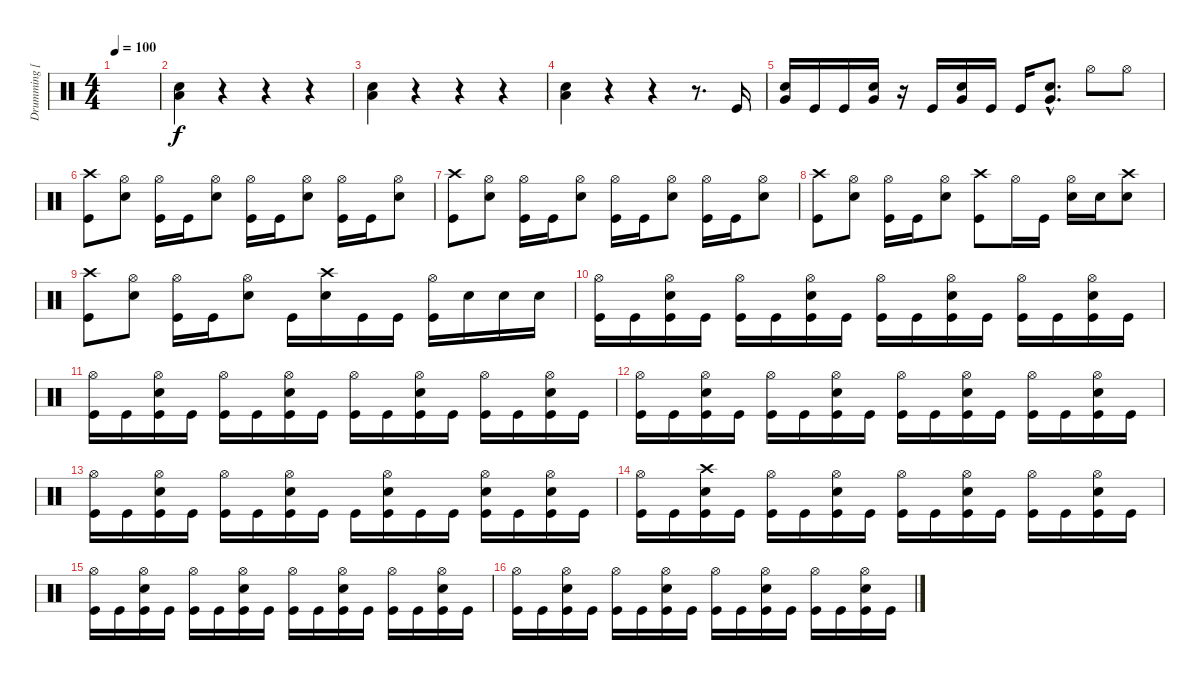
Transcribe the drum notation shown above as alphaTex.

\track ("Drumming [Jukka]" "Drumming [") {instrument percussion}
\staff {score}
\articulation defaults
\ts (4 4)
\tempo 100
\clef neutral
\ks c
|
("Low Floor Tom (hit)" "Electric Snare (hit)").4 r.4 r.4 r.4 |
("Low Floor Tom (hit)" "Electric Snare (hit)").4 r.4 r.4 r.4 |
("Low Floor Tom (hit)" "Electric Snare (hit)").4 r.4 r.4 r.8{d} "Kick (hit)".16 |
("Very Low Tom (hit)" "Electric Snare (hit)").16 "Kick (hit)".16 "Kick (hit)".16 ("Very Low Tom (hit)" "Electric Snare (hit)").16 r.16 "Kick (hit)".16 ("Very Low Tom (hit)" "Electric Snare (hit)").16 "Kick (hit)".16 "Kick (hit)".16 ("Very Low Tom (hit)"{hac} "Electric Snare (hit)"{hac}).8{d} "Hi-Hat (open)".8 "Hi-Hat (open)".8 |
("Crash high (hit)" "Kick (hit)").8 ("Hi-Hat (open)" "Electric Snare (hit)").8 ("Hi-Hat (open)" "Kick (hit)").16 "Kick (hit)".16 ("Hi-Hat (open)" "Electric Snare (hit)").8 ("Hi-Hat (open)" "Kick (hit)").16 "Kick (hit)".16 ("Hi-Hat (open)" "Electric Snare (hit)").8 ("Hi-Hat (open)" "Kick (hit)").16 "Kick (hit)".16 ("Hi-Hat (open)" "Electric Snare (hit)").8 |
("Crash high (hit)" "Kick (hit)").8 ("Hi-Hat (open)" "Electric Snare (hit)").8 ("Hi-Hat (open)" "Kick (hit)").16 "Kick (hit)".16 ("Hi-Hat (open)" "Electric Snare (hit)").8 ("Hi-Hat (open)" "Kick (hit)").16 "Kick (hit)".16 ("Hi-Hat (open)" "Electric Snare (hit)").8 ("Hi-Hat (open)" "Kick (hit)").16 "Kick (hit)".16 ("Hi-Hat (open)" "Electric Snare (hit)").8 |
("Crash high (hit)" "Kick (hit)").8 ("Hi-Hat (open)" "Electric Snare (hit)").8 ("Hi-Hat (open)" "Kick (hit)").16 "Kick (hit)".16 ("Hi-Hat (open)" "Electric Snare (hit)").8 ("Crash high (hit)" "Kick (hit)").8 "Hi-Hat (open)".16 "Kick (hit)".16 ("Hi-Hat (open)" "Electric Snare (hit)").16 "Electric Snare (hit)".16 ("Crash high (hit)" "Electric Snare (hit)").8 |
("Crash high (hit)" "Kick (hit)").8 ("Hi-Hat (open)" "Electric Snare (hit)").8 ("Hi-Hat (open)" "Kick (hit)").16 "Kick (hit)".16 ("Hi-Hat (open)" "Electric Snare (hit)").8 "Kick (hit)".16 ("Crash high (hit)" "Electric Snare (hit)").16 "Kick (hit)".16 "Kick (hit)".16 ("Hi-Hat (open)" "Kick (hit)").16 "Electric Snare (hit)".16 "Electric Snare (hit)".16 "Electric Snare (hit)".16 |
("Hi-Hat (open)" "Kick (hit)").16 "Kick (hit)".16 ("Hi-Hat (open)" "Electric Snare (hit)" "Kick (hit)").16 "Kick (hit)".16 ("Hi-Hat (open)" "Kick (hit)").16 "Kick (hit)".16 ("Hi-Hat (open)" "Electric Snare (hit)" "Kick (hit)").16 "Kick (hit)".16 ("Hi-Hat (open)" "Kick (hit)").16 "Kick (hit)".16 ("Hi-Hat (open)" "Electric Snare (hit)" "Kick (hit)").16 "Kick (hit)".16 ("Hi-Hat (open)" "Kick (hit)").16 "Kick (hit)".16 ("Hi-Hat (open)" "Electric Snare (hit)" "Kick (hit)").16 "Kick (hit)".16 |
("Hi-Hat (open)" "Kick (hit)").16 "Kick (hit)".16 ("Hi-Hat (open)" "Electric Snare (hit)" "Kick (hit)").16 "Kick (hit)".16 ("Hi-Hat (open)" "Kick (hit)").16 "Kick (hit)".16 ("Hi-Hat (open)" "Electric Snare (hit)" "Kick (hit)").16 "Kick (hit)".16 ("Hi-Hat (open)" "Kick (hit)").16 "Kick (hit)".16 ("Hi-Hat (open)" "Electric Snare (hit)" "Kick (hit)").16 "Kick (hit)".16 ("Hi-Hat (open)" "Kick (hit)").16 "Kick (hit)".16 ("Hi-Hat (open)" "Electric Snare (hit)" "Kick (hit)").16 "Kick (hit)".16 |
("Hi-Hat (open)" "Kick (hit)").16 "Kick (hit)".16 ("Hi-Hat (open)" "Electric Snare (hit)" "Kick (hit)").16 "Kick (hit)".16 ("Hi-Hat (open)" "Kick (hit)").16 "Kick (hit)".16 ("Hi-Hat (open)" "Electric Snare (hit)" "Kick (hit)").16 "Kick (hit)".16 ("Hi-Hat (open)" "Kick (hit)").16 "Kick (hit)".16 ("Hi-Hat (open)" "Electric Snare (hit)" "Kick (hit)").16 "Kick (hit)".16 ("Hi-Hat (open)" "Kick (hit)").16 "Kick (hit)".16 ("Hi-Hat (open)" "Electric Snare (hit)" "Kick (hit)").16 "Kick (hit)".16 |
("Hi-Hat (open)" "Kick (hit)").16 "Kick (hit)".16 ("Hi-Hat (open)" "Electric Snare (hit)" "Kick (hit)").16 "Kick (hit)".16 ("Hi-Hat (open)" "Kick (hit)").16 "Kick (hit)".16 ("Hi-Hat (open)" "Electric Snare (hit)" "Kick (hit)").16 "Kick (hit)".16 "Kick (hit)".16 ("Hi-Hat (open)" "Electric Snare (hit)" "Kick (hit)").16 "Kick (hit)".16 "Kick (hit)".16 ("Hi-Hat (open)" "Electric Snare (hit)" "Kick (hit)").16 "Kick (hit)".16 ("Hi-Hat (open)" "Electric Snare (hit)" "Kick (hit)").16 "Kick (hit)".16 |
("Hi-Hat (open)" "Kick (hit)").16 "Kick (hit)".16 ("Crash high (hit)" "Electric Snare (hit)" "Kick (hit)").16 "Kick (hit)".16 ("Hi-Hat (open)" "Kick (hit)").16 "Kick (hit)".16 ("Hi-Hat (open)" "Electric Snare (hit)" "Kick (hit)").16 "Kick (hit)".16 ("Hi-Hat (open)" "Kick (hit)").16 "Kick (hit)".16 ("Hi-Hat (open)" "Electric Snare (hit)" "Kick (hit)").16 "Kick (hit)".16 ("Hi-Hat (open)" "Kick (hit)").16 "Kick (hit)".16 ("Hi-Hat (open)" "Electric Snare (hit)" "Kick (hit)").16 "Kick (hit)".16 |
("Hi-Hat (open)" "Kick (hit)").16 "Kick (hit)".16 ("Hi-Hat (open)" "Electric Snare (hit)" "Kick (hit)").16 "Kick (hit)".16 ("Hi-Hat (open)" "Kick (hit)").16 "Kick (hit)".16 ("Hi-Hat (open)" "Electric Snare (hit)" "Kick (hit)").16 "Kick (hit)".16 ("Hi-Hat (open)" "Kick (hit)").16 "Kick (hit)".16 ("Hi-Hat (open)" "Electric Snare (hit)" "Kick (hit)").16 "Kick (hit)".16 ("Hi-Hat (open)" "Kick (hit)").16 "Kick (hit)".16 ("Hi-Hat (open)" "Electric Snare (hit)" "Kick (hit)").16 "Kick (hit)".16 |
("Hi-Hat (open)" "Kick (hit)").16 "Kick (hit)".16 ("Hi-Hat (open)" "Electric Snare (hit)" "Kick (hit)").16 "Kick (hit)".16 ("Hi-Hat (open)" "Kick (hit)").16 "Kick (hit)".16 ("Hi-Hat (open)" "Electric Snare (hit)" "Kick (hit)").16 "Kick (hit)".16 ("Hi-Hat (open)" "Kick (hit)").16 "Kick (hit)".16 ("Hi-Hat (open)" "Electric Snare (hit)" "Kick (hit)").16 "Kick (hit)".16 ("Hi-Hat (open)" "Kick (hit)").16 "Kick (hit)".16 ("Hi-Hat (open)" "Electric Snare (hit)" "Kick (hit)").16 "Kick (hit)".16
